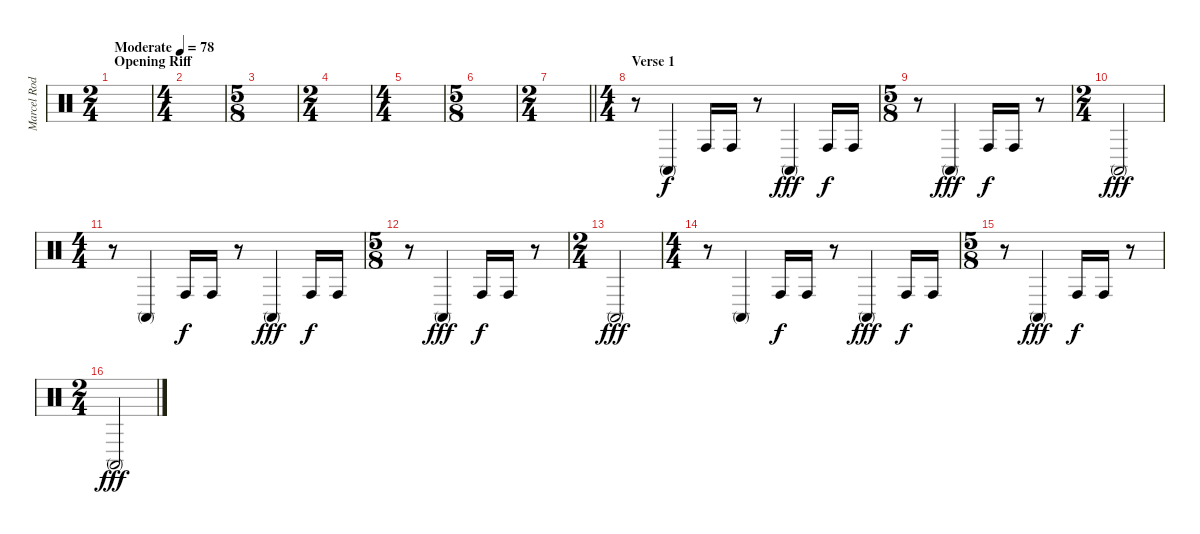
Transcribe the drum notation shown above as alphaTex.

\track ("Marcel Rodriguez-Lopez" "Marcel Rod") {instrument percussion}
\staff {score}
\articulation defaults
\ts (2 4)
\section ("" "Opening Riff")
\tempo (78 "Moderate")
\clef neutral
\ks c
|
\ts (4 4)
|
\ts (5 8)
|
\ts (2 4)
|
\ts (4 4)
|
\ts (5 8)
|
\ts (2 4)
\barLineRight lightlight
|
\ts (4 4)
\section ("" "Verse 1")
r.8 "Conga high (mute)".4 "Conga high (hit)".16{dy f} "Conga high (hit)".16 r.8 "Conga high (mute)".4{dy fff} "Conga high (hit)".16{dy f} "Conga high (hit)".16 |
\ts (5 8)
r.8 "Conga high (mute)".4{dy fff} "Conga high (hit)".16{dy f} "Conga high (hit)".16 r.8 |
\ts (2 4)
"Conga high (mute)".2{dy fff} |
\ts (4 4)
r.8 "Conga high (mute)".4 "Conga high (hit)".16{dy f} "Conga high (hit)".16 r.8 "Conga high (mute)".4{dy fff} "Conga high (hit)".16{dy f} "Conga high (hit)".16 |
\ts (5 8)
r.8 "Conga high (mute)".4{dy fff} "Conga high (hit)".16{dy f} "Conga high (hit)".16 r.8 |
\ts (2 4)
"Conga high (mute)".2{dy fff} |
\ts (4 4)
r.8 "Conga high (mute)".4 "Conga high (hit)".16{dy f} "Conga high (hit)".16 r.8 "Conga high (mute)".4{dy fff} "Conga high (hit)".16{dy f} "Conga high (hit)".16 |
\ts (5 8)
r.8 "Conga high (mute)".4{dy fff} "Conga high (hit)".16{dy f} "Conga high (hit)".16 r.8 |
\ts (2 4)
"Conga high (mute)".2{dy fff}
